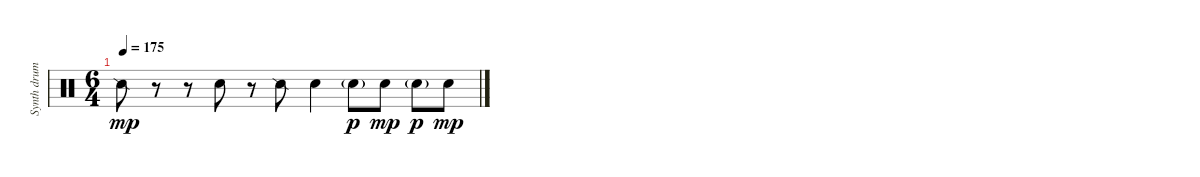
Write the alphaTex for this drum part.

\track ("Synth drums" "Synth drum") {instrument percussion}
\staff {score}
\articulation defaults
\ts (6 4)
\tempo 175
\clef neutral
\ks c "Snare (side stick) 2".8{dy mp}
r.8 r.8 "Hand Clap (hit)".8 r.8 "Snare (side stick) 2".8 "Hand Clap (hit)".4 "Hand Clap (hit)"{g}.8{dy p} "Hand Clap (hit)".8{dy mp} "Hand Clap (hit)"{g}.8{dy p} "Hand Clap (hit)".8{dy mp}
